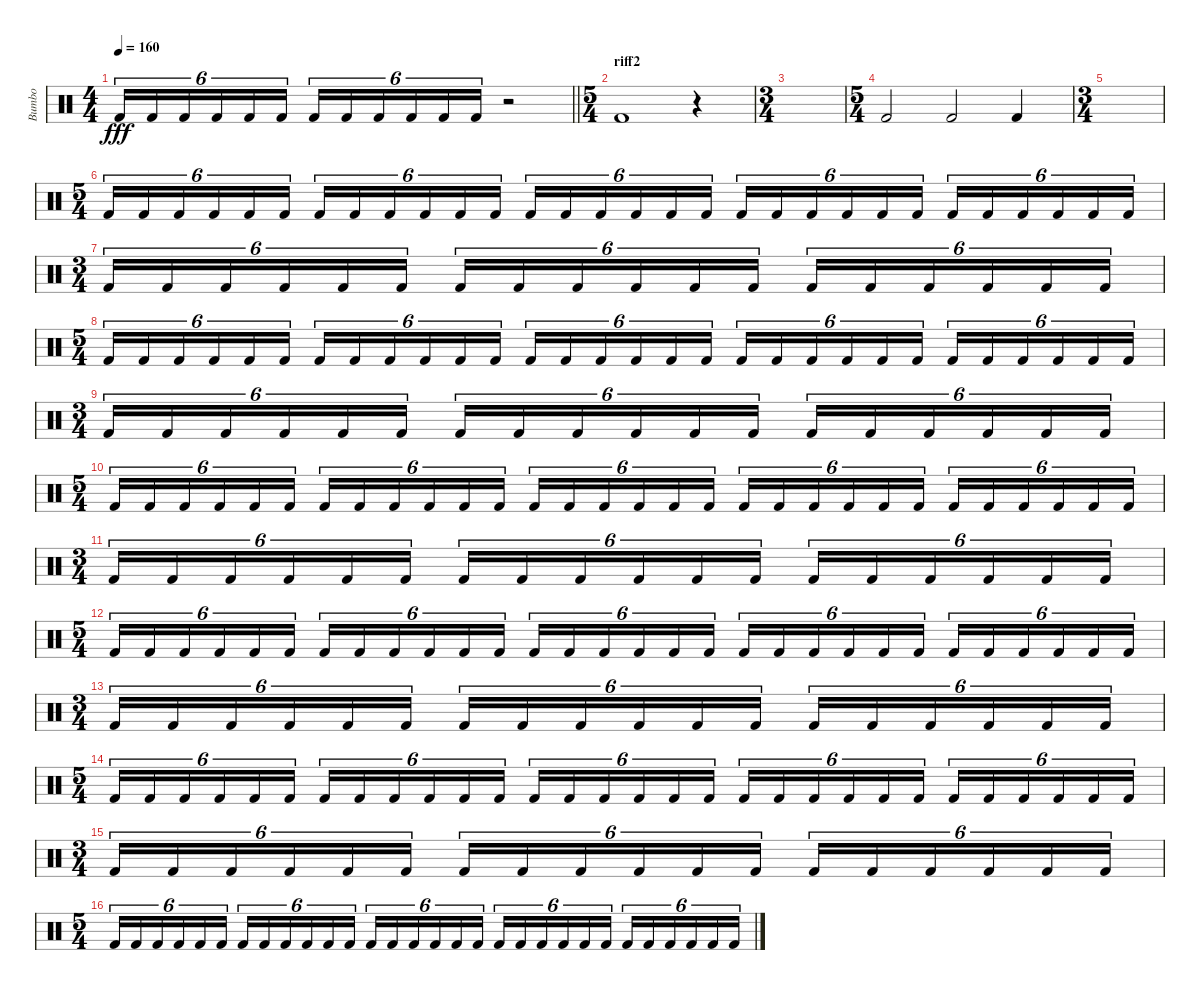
\track ("Bumbo" "Bumbo") {instrument percussion}
\staff {score}
\articulation defaults
\ts (4 4)
\tempo 160
\clef neutral
\barLineRight lightlight
\ks c "Kick (hit) 2".16{tu (6 4) dy fff} "Kick (hit) 2".16{tu (6 4)} "Kick (hit) 2".16{tu (6 4)} "Kick (hit) 2".16{tu (6 4)} "Kick (hit) 2".16{tu (6 4)} "Kick (hit) 2".16{tu (6 4)} "Kick (hit) 2".16{tu (6 4)} "Kick (hit) 2".16{tu (6 4)} "Kick (hit) 2".16{tu (6 4)} "Kick (hit) 2".16{tu (6 4)} "Kick (hit) 2".16{tu (6 4)} "Kick (hit) 2".16{tu (6 4)}
r.2 |
\ts (5 4)
\section ("" "riff2")
"Kick (hit) 2".1 r.4 |
\ts (3 4)
|
\ts (5 4)
"Kick (hit) 2".2 "Kick (hit) 2".2 "Kick (hit) 2".4 |
\ts (3 4)
|
\ts (5 4)
"Kick (hit) 2".16{tu (6 4)} "Kick (hit) 2".16{tu (6 4)} "Kick (hit) 2".16{tu (6 4)} "Kick (hit) 2".16{tu (6 4)} "Kick (hit) 2".16{tu (6 4)} "Kick (hit) 2".16{tu (6 4)} "Kick (hit) 2".16{tu (6 4)} "Kick (hit) 2".16{tu (6 4)} "Kick (hit) 2".16{tu (6 4)} "Kick (hit) 2".16{tu (6 4)} "Kick (hit) 2".16{tu (6 4)} "Kick (hit) 2".16{tu (6 4)} "Kick (hit) 2".16{tu (6 4)} "Kick (hit) 2".16{tu (6 4)} "Kick (hit) 2".16{tu (6 4)} "Kick (hit) 2".16{tu (6 4)} "Kick (hit) 2".16{tu (6 4)} "Kick (hit) 2".16{tu (6 4)} "Kick (hit) 2".16{tu (6 4)} "Kick (hit) 2".16{tu (6 4)} "Kick (hit) 2".16{tu (6 4)} "Kick (hit) 2".16{tu (6 4)} "Kick (hit) 2".16{tu (6 4)} "Kick (hit) 2".16{tu (6 4)} "Kick (hit) 2".16{tu (6 4)} "Kick (hit) 2".16{tu (6 4)} "Kick (hit) 2".16{tu (6 4)} "Kick (hit) 2".16{tu (6 4)} "Kick (hit) 2".16{tu (6 4)} "Kick (hit) 2".16{tu (6 4)} |
\ts (3 4)
"Kick (hit) 2".16{tu (6 4)} "Kick (hit) 2".16{tu (6 4)} "Kick (hit) 2".16{tu (6 4)} "Kick (hit) 2".16{tu (6 4)} "Kick (hit) 2".16{tu (6 4)} "Kick (hit) 2".16{tu (6 4)} "Kick (hit) 2".16{tu (6 4)} "Kick (hit) 2".16{tu (6 4)} "Kick (hit) 2".16{tu (6 4)} "Kick (hit) 2".16{tu (6 4)} "Kick (hit) 2".16{tu (6 4)} "Kick (hit) 2".16{tu (6 4)} "Kick (hit) 2".16{tu (6 4)} "Kick (hit) 2".16{tu (6 4)} "Kick (hit) 2".16{tu (6 4)} "Kick (hit) 2".16{tu (6 4)} "Kick (hit) 2".16{tu (6 4)} "Kick (hit) 2".16{tu (6 4)} |
\ts (5 4)
"Kick (hit) 2".16{tu (6 4)} "Kick (hit) 2".16{tu (6 4)} "Kick (hit) 2".16{tu (6 4)} "Kick (hit) 2".16{tu (6 4)} "Kick (hit) 2".16{tu (6 4)} "Kick (hit) 2".16{tu (6 4)} "Kick (hit) 2".16{tu (6 4)} "Kick (hit) 2".16{tu (6 4)} "Kick (hit) 2".16{tu (6 4)} "Kick (hit) 2".16{tu (6 4)} "Kick (hit) 2".16{tu (6 4)} "Kick (hit) 2".16{tu (6 4)} "Kick (hit) 2".16{tu (6 4)} "Kick (hit) 2".16{tu (6 4)} "Kick (hit) 2".16{tu (6 4)} "Kick (hit) 2".16{tu (6 4)} "Kick (hit) 2".16{tu (6 4)} "Kick (hit) 2".16{tu (6 4)} "Kick (hit) 2".16{tu (6 4)} "Kick (hit) 2".16{tu (6 4)} "Kick (hit) 2".16{tu (6 4)} "Kick (hit) 2".16{tu (6 4)} "Kick (hit) 2".16{tu (6 4)} "Kick (hit) 2".16{tu (6 4)} "Kick (hit) 2".16{tu (6 4)} "Kick (hit) 2".16{tu (6 4)} "Kick (hit) 2".16{tu (6 4)} "Kick (hit) 2".16{tu (6 4)} "Kick (hit) 2".16{tu (6 4)} "Kick (hit) 2".16{tu (6 4)} |
\ts (3 4)
"Kick (hit) 2".16{tu (6 4)} "Kick (hit) 2".16{tu (6 4)} "Kick (hit) 2".16{tu (6 4)} "Kick (hit) 2".16{tu (6 4)} "Kick (hit) 2".16{tu (6 4)} "Kick (hit) 2".16{tu (6 4)} "Kick (hit) 2".16{tu (6 4)} "Kick (hit) 2".16{tu (6 4)} "Kick (hit) 2".16{tu (6 4)} "Kick (hit) 2".16{tu (6 4)} "Kick (hit) 2".16{tu (6 4)} "Kick (hit) 2".16{tu (6 4)} "Kick (hit) 2".16{tu (6 4)} "Kick (hit) 2".16{tu (6 4)} "Kick (hit) 2".16{tu (6 4)} "Kick (hit) 2".16{tu (6 4)} "Kick (hit) 2".16{tu (6 4)} "Kick (hit) 2".16{tu (6 4)} |
\ts (5 4)
"Kick (hit) 2".16{tu (6 4)} "Kick (hit) 2".16{tu (6 4)} "Kick (hit) 2".16{tu (6 4)} "Kick (hit) 2".16{tu (6 4)} "Kick (hit) 2".16{tu (6 4)} "Kick (hit) 2".16{tu (6 4)} "Kick (hit) 2".16{tu (6 4)} "Kick (hit) 2".16{tu (6 4)} "Kick (hit) 2".16{tu (6 4)} "Kick (hit) 2".16{tu (6 4)} "Kick (hit) 2".16{tu (6 4)} "Kick (hit) 2".16{tu (6 4)} "Kick (hit) 2".16{tu (6 4)} "Kick (hit) 2".16{tu (6 4)} "Kick (hit) 2".16{tu (6 4)} "Kick (hit) 2".16{tu (6 4)} "Kick (hit) 2".16{tu (6 4)} "Kick (hit) 2".16{tu (6 4)} "Kick (hit) 2".16{tu (6 4)} "Kick (hit) 2".16{tu (6 4)} "Kick (hit) 2".16{tu (6 4)} "Kick (hit) 2".16{tu (6 4)} "Kick (hit) 2".16{tu (6 4)} "Kick (hit) 2".16{tu (6 4)} "Kick (hit) 2".16{tu (6 4)} "Kick (hit) 2".16{tu (6 4)} "Kick (hit) 2".16{tu (6 4)} "Kick (hit) 2".16{tu (6 4)} "Kick (hit) 2".16{tu (6 4)} "Kick (hit) 2".16{tu (6 4)} |
\ts (3 4)
"Kick (hit) 2".16{tu (6 4)} "Kick (hit) 2".16{tu (6 4)} "Kick (hit) 2".16{tu (6 4)} "Kick (hit) 2".16{tu (6 4)} "Kick (hit) 2".16{tu (6 4)} "Kick (hit) 2".16{tu (6 4)} "Kick (hit) 2".16{tu (6 4)} "Kick (hit) 2".16{tu (6 4)} "Kick (hit) 2".16{tu (6 4)} "Kick (hit) 2".16{tu (6 4)} "Kick (hit) 2".16{tu (6 4)} "Kick (hit) 2".16{tu (6 4)} "Kick (hit) 2".16{tu (6 4)} "Kick (hit) 2".16{tu (6 4)} "Kick (hit) 2".16{tu (6 4)} "Kick (hit) 2".16{tu (6 4)} "Kick (hit) 2".16{tu (6 4)} "Kick (hit) 2".16{tu (6 4)} |
\ts (5 4)
"Kick (hit) 2".16{tu (6 4)} "Kick (hit) 2".16{tu (6 4)} "Kick (hit) 2".16{tu (6 4)} "Kick (hit) 2".16{tu (6 4)} "Kick (hit) 2".16{tu (6 4)} "Kick (hit) 2".16{tu (6 4)} "Kick (hit) 2".16{tu (6 4)} "Kick (hit) 2".16{tu (6 4)} "Kick (hit) 2".16{tu (6 4)} "Kick (hit) 2".16{tu (6 4)} "Kick (hit) 2".16{tu (6 4)} "Kick (hit) 2".16{tu (6 4)} "Kick (hit) 2".16{tu (6 4)} "Kick (hit) 2".16{tu (6 4)} "Kick (hit) 2".16{tu (6 4)} "Kick (hit) 2".16{tu (6 4)} "Kick (hit) 2".16{tu (6 4)} "Kick (hit) 2".16{tu (6 4)} "Kick (hit) 2".16{tu (6 4)} "Kick (hit) 2".16{tu (6 4)} "Kick (hit) 2".16{tu (6 4)} "Kick (hit) 2".16{tu (6 4)} "Kick (hit) 2".16{tu (6 4)} "Kick (hit) 2".16{tu (6 4)} "Kick (hit) 2".16{tu (6 4)} "Kick (hit) 2".16{tu (6 4)} "Kick (hit) 2".16{tu (6 4)} "Kick (hit) 2".16{tu (6 4)} "Kick (hit) 2".16{tu (6 4)} "Kick (hit) 2".16{tu (6 4)} |
\ts (3 4)
"Kick (hit) 2".16{tu (6 4)} "Kick (hit) 2".16{tu (6 4)} "Kick (hit) 2".16{tu (6 4)} "Kick (hit) 2".16{tu (6 4)} "Kick (hit) 2".16{tu (6 4)} "Kick (hit) 2".16{tu (6 4)} "Kick (hit) 2".16{tu (6 4)} "Kick (hit) 2".16{tu (6 4)} "Kick (hit) 2".16{tu (6 4)} "Kick (hit) 2".16{tu (6 4)} "Kick (hit) 2".16{tu (6 4)} "Kick (hit) 2".16{tu (6 4)} "Kick (hit) 2".16{tu (6 4)} "Kick (hit) 2".16{tu (6 4)} "Kick (hit) 2".16{tu (6 4)} "Kick (hit) 2".16{tu (6 4)} "Kick (hit) 2".16{tu (6 4)} "Kick (hit) 2".16{tu (6 4)} |
\ts (5 4)
"Kick (hit) 2".16{tu (6 4)} "Kick (hit) 2".16{tu (6 4)} "Kick (hit) 2".16{tu (6 4)} "Kick (hit) 2".16{tu (6 4)} "Kick (hit) 2".16{tu (6 4)} "Kick (hit) 2".16{tu (6 4)} "Kick (hit) 2".16{tu (6 4)} "Kick (hit) 2".16{tu (6 4)} "Kick (hit) 2".16{tu (6 4)} "Kick (hit) 2".16{tu (6 4)} "Kick (hit) 2".16{tu (6 4)} "Kick (hit) 2".16{tu (6 4)} "Kick (hit) 2".16{tu (6 4)} "Kick (hit) 2".16{tu (6 4)} "Kick (hit) 2".16{tu (6 4)} "Kick (hit) 2".16{tu (6 4)} "Kick (hit) 2".16{tu (6 4)} "Kick (hit) 2".16{tu (6 4)} "Kick (hit) 2".16{tu (6 4)} "Kick (hit) 2".16{tu (6 4)} "Kick (hit) 2".16{tu (6 4)} "Kick (hit) 2".16{tu (6 4)} "Kick (hit) 2".16{tu (6 4)} "Kick (hit) 2".16{tu (6 4)} "Kick (hit) 2".16{tu (6 4)} "Kick (hit) 2".16{tu (6 4)} "Kick (hit) 2".16{tu (6 4)} "Kick (hit) 2".16{tu (6 4)} "Kick (hit) 2".16{tu (6 4)} "Kick (hit) 2".16{tu (6 4)} |
\ts (3 4)
"Kick (hit) 2".16{tu (6 4)} "Kick (hit) 2".16{tu (6 4)} "Kick (hit) 2".16{tu (6 4)} "Kick (hit) 2".16{tu (6 4)} "Kick (hit) 2".16{tu (6 4)} "Kick (hit) 2".16{tu (6 4)} "Kick (hit) 2".16{tu (6 4)} "Kick (hit) 2".16{tu (6 4)} "Kick (hit) 2".16{tu (6 4)} "Kick (hit) 2".16{tu (6 4)} "Kick (hit) 2".16{tu (6 4)} "Kick (hit) 2".16{tu (6 4)} "Kick (hit) 2".16{tu (6 4)} "Kick (hit) 2".16{tu (6 4)} "Kick (hit) 2".16{tu (6 4)} "Kick (hit) 2".16{tu (6 4)} "Kick (hit) 2".16{tu (6 4)} "Kick (hit) 2".16{tu (6 4)} |
\ts (5 4)
"Kick (hit) 2".16{tu (6 4)} "Kick (hit) 2".16{tu (6 4)} "Kick (hit) 2".16{tu (6 4)} "Kick (hit) 2".16{tu (6 4)} "Kick (hit) 2".16{tu (6 4)} "Kick (hit) 2".16{tu (6 4)} "Kick (hit) 2".16{tu (6 4)} "Kick (hit) 2".16{tu (6 4)} "Kick (hit) 2".16{tu (6 4)} "Kick (hit) 2".16{tu (6 4)} "Kick (hit) 2".16{tu (6 4)} "Kick (hit) 2".16{tu (6 4)} "Kick (hit) 2".16{tu (6 4)} "Kick (hit) 2".16{tu (6 4)} "Kick (hit) 2".16{tu (6 4)} "Kick (hit) 2".16{tu (6 4)} "Kick (hit) 2".16{tu (6 4)} "Kick (hit) 2".16{tu (6 4)} "Kick (hit) 2".16{tu (6 4)} "Kick (hit) 2".16{tu (6 4)} "Kick (hit) 2".16{tu (6 4)} "Kick (hit) 2".16{tu (6 4)} "Kick (hit) 2".16{tu (6 4)} "Kick (hit) 2".16{tu (6 4)} "Kick (hit) 2".16{tu (6 4)} "Kick (hit) 2".16{tu (6 4)} "Kick (hit) 2".16{tu (6 4)} "Kick (hit) 2".16{tu (6 4)} "Kick (hit) 2".16{tu (6 4)} "Kick (hit) 2".16{tu (6 4)}
